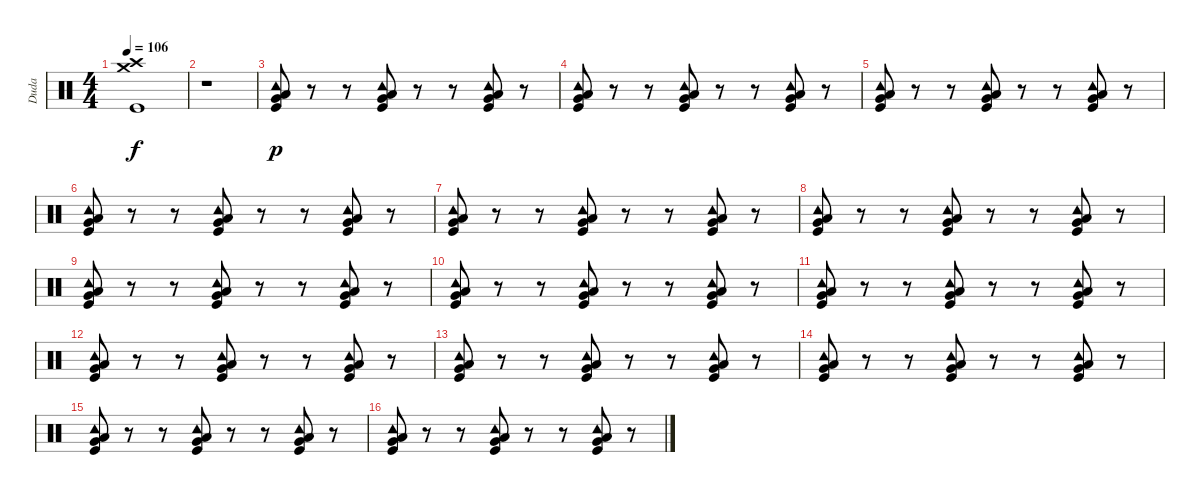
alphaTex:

\track ("Duda" "Duda") {instrument percussion}
\staff {score}
\articulation defaults
\ts (4 4)
\tempo 106
\clef neutral
\ks c
("Crash medium (hit)" "Crash high (hit)" "Kick (hit)").1{dy f} |
r.1 |
("Tambourine (hit)" "Low Floor Tom (hit)" "Very Low Tom (hit)" "Kick (hit)").8{dy p} r.8 r.8 ("Tambourine (hit)" "Low Floor Tom (hit)" "Very Low Tom (hit)" "Kick (hit)").8 r.8 r.8 ("Tambourine (hit)" "Low Floor Tom (hit)" "Very Low Tom (hit)" "Kick (hit)").8 r.8 |
("Tambourine (hit)" "Low Floor Tom (hit)" "Very Low Tom (hit)" "Kick (hit)").8 r.8 r.8 ("Tambourine (hit)" "Low Floor Tom (hit)" "Very Low Tom (hit)" "Kick (hit)").8 r.8 r.8 ("Tambourine (hit)" "Low Floor Tom (hit)" "Very Low Tom (hit)" "Kick (hit)").8 r.8 |
("Tambourine (hit)" "Low Floor Tom (hit)" "Very Low Tom (hit)" "Kick (hit)").8 r.8 r.8 ("Tambourine (hit)" "Low Floor Tom (hit)" "Very Low Tom (hit)" "Kick (hit)").8 r.8 r.8 ("Tambourine (hit)" "Low Floor Tom (hit)" "Very Low Tom (hit)" "Kick (hit)").8 r.8 |
("Tambourine (hit)" "Low Floor Tom (hit)" "Very Low Tom (hit)" "Kick (hit)").8 r.8 r.8 ("Tambourine (hit)" "Low Floor Tom (hit)" "Very Low Tom (hit)" "Kick (hit)").8 r.8 r.8 ("Tambourine (hit)" "Low Floor Tom (hit)" "Very Low Tom (hit)" "Kick (hit)").8 r.8 |
("Tambourine (hit)" "Low Floor Tom (hit)" "Very Low Tom (hit)" "Kick (hit)").8 r.8 r.8 ("Tambourine (hit)" "Low Floor Tom (hit)" "Very Low Tom (hit)" "Kick (hit)").8 r.8 r.8 ("Tambourine (hit)" "Low Floor Tom (hit)" "Very Low Tom (hit)" "Kick (hit)").8 r.8 |
("Tambourine (hit)" "Low Floor Tom (hit)" "Very Low Tom (hit)" "Kick (hit)").8 r.8 r.8 ("Tambourine (hit)" "Low Floor Tom (hit)" "Very Low Tom (hit)" "Kick (hit)").8 r.8 r.8 ("Tambourine (hit)" "Low Floor Tom (hit)" "Very Low Tom (hit)" "Kick (hit)").8 r.8 |
("Tambourine (hit)" "Low Floor Tom (hit)" "Very Low Tom (hit)" "Kick (hit)").8 r.8 r.8 ("Tambourine (hit)" "Low Floor Tom (hit)" "Very Low Tom (hit)" "Kick (hit)").8 r.8 r.8 ("Tambourine (hit)" "Low Floor Tom (hit)" "Very Low Tom (hit)" "Kick (hit)").8 r.8 |
("Tambourine (hit)" "Low Floor Tom (hit)" "Very Low Tom (hit)" "Kick (hit)").8 r.8 r.8 ("Tambourine (hit)" "Low Floor Tom (hit)" "Very Low Tom (hit)" "Kick (hit)").8 r.8 r.8 ("Tambourine (hit)" "Low Floor Tom (hit)" "Very Low Tom (hit)" "Kick (hit)").8 r.8 |
("Tambourine (hit)" "Low Floor Tom (hit)" "Very Low Tom (hit)" "Kick (hit)").8 r.8 r.8 ("Tambourine (hit)" "Low Floor Tom (hit)" "Very Low Tom (hit)" "Kick (hit)").8 r.8 r.8 ("Tambourine (hit)" "Low Floor Tom (hit)" "Very Low Tom (hit)" "Kick (hit)").8 r.8 |
("Tambourine (hit)" "Low Floor Tom (hit)" "Very Low Tom (hit)" "Kick (hit)").8 r.8 r.8 ("Tambourine (hit)" "Low Floor Tom (hit)" "Very Low Tom (hit)" "Kick (hit)").8 r.8 r.8 ("Tambourine (hit)" "Low Floor Tom (hit)" "Very Low Tom (hit)" "Kick (hit)").8 r.8 |
("Tambourine (hit)" "Low Floor Tom (hit)" "Very Low Tom (hit)" "Kick (hit)").8 r.8 r.8 ("Tambourine (hit)" "Low Floor Tom (hit)" "Very Low Tom (hit)" "Kick (hit)").8 r.8 r.8 ("Tambourine (hit)" "Low Floor Tom (hit)" "Very Low Tom (hit)" "Kick (hit)").8 r.8 |
("Tambourine (hit)" "Low Floor Tom (hit)" "Very Low Tom (hit)" "Kick (hit)").8 r.8 r.8 ("Tambourine (hit)" "Low Floor Tom (hit)" "Very Low Tom (hit)" "Kick (hit)").8 r.8 r.8 ("Tambourine (hit)" "Low Floor Tom (hit)" "Very Low Tom (hit)" "Kick (hit)").8 r.8 |
("Tambourine (hit)" "Low Floor Tom (hit)" "Very Low Tom (hit)" "Kick (hit)").8 r.8 r.8 ("Tambourine (hit)" "Low Floor Tom (hit)" "Very Low Tom (hit)" "Kick (hit)").8 r.8 r.8 ("Tambourine (hit)" "Low Floor Tom (hit)" "Very Low Tom (hit)" "Kick (hit)").8 r.8 |
("Tambourine (hit)" "Low Floor Tom (hit)" "Very Low Tom (hit)" "Kick (hit)").8 r.8 r.8 ("Tambourine (hit)" "Low Floor Tom (hit)" "Very Low Tom (hit)" "Kick (hit)").8 r.8 r.8 ("Tambourine (hit)" "Low Floor Tom (hit)" "Very Low Tom (hit)" "Kick (hit)").8 r.8
